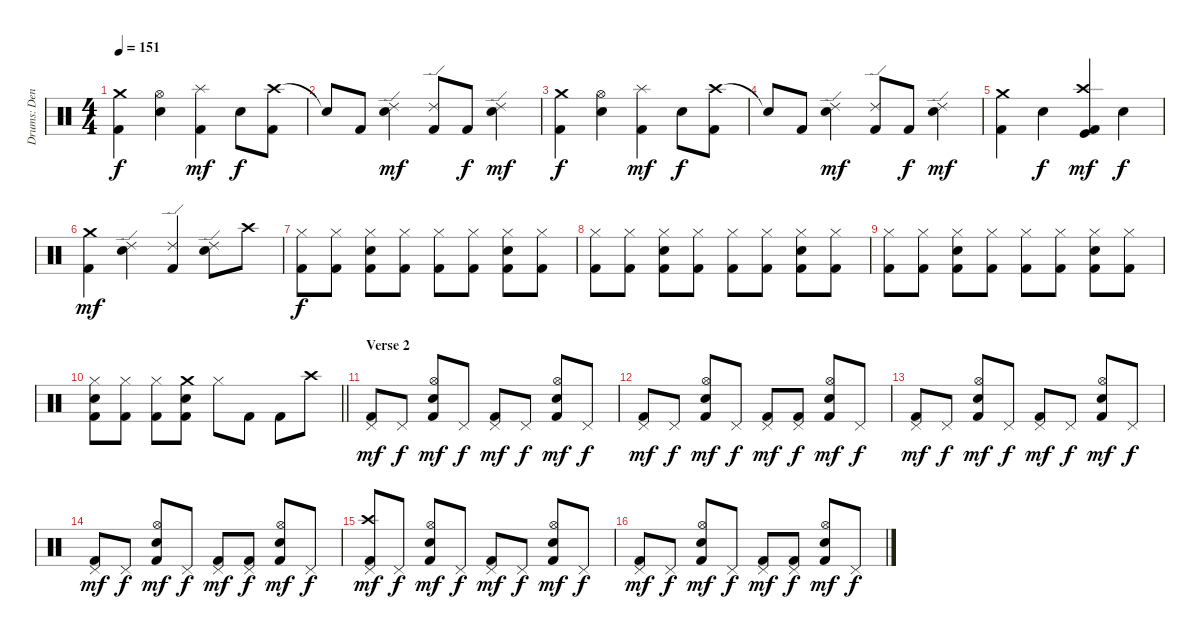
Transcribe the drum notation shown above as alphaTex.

\track ("Drums: Denny Carmassi" "Drums: Den") {instrument percussion}
\staff {score}
\articulation defaults
\ts (4 4)
\tempo 151
\clef neutral
\ks c
("Crash medium (hit)" "Kick (hit) 2").4{dy f} ("Hi-Hat (open)" "Snare (hit) 2").4 ("Splash (hit)" "Kick (hit) 2").4{dy mf} "Snare (hit) 2".8{dy f} ("Crash high (hit)" "Kick (hit) 2").8 |
"Snare (hit)"{t}.8 "Kick (hit) 2".8 ("Ride (edge) 2" "Snare (hit) 2").4{dy mf} ("Ride (edge) 2" "Kick (hit) 2").8 "Kick (hit) 2".8{dy f} ("Ride (edge) 2" "Snare (hit) 2").4{dy mf} |
("Crash medium (hit)" "Kick (hit) 2").4{dy f} ("Hi-Hat (open)" "Snare (hit) 2").4 ("Splash (hit)" "Kick (hit) 2").4{dy mf} "Snare (hit) 2".8{dy f} ("Crash high (hit)" "Kick (hit) 2").8 |
"Snare (hit)"{t}.8 "Kick (hit) 2".8 ("Ride (edge) 2" "Snare (hit) 2").4{dy mf} ("Ride (edge) 2" "Kick (hit) 2").8 "Kick (hit) 2".8{dy f} ("Ride (edge) 2" "Snare (hit) 2").4{dy mf} |
("Crash medium (hit)" "Kick (hit) 2").4 "Snare (hit) 2".4{dy f} ("Crash high (hit)" "Kick (hit)" "Kick (hit) 2").4{dy mf} "Snare (hit) 2".4{dy f} |
("Crash medium (hit)" "Kick (hit) 2").4{dy mf} ("Ride (edge) 2" "Snare (hit) 2").4 ("Ride (edge) 2" "Kick (hit) 2").4 ("Ride (edge) 2" "Snare (hit) 2").8 "Crash high (hit)".8 |
("Hi-Hat (closed)" "Kick (hit) 2").8{dy f} ("Hi-Hat (closed)" "Kick (hit) 2").8 ("Hi-Hat (closed)" "Snare (hit) 2" "Kick (hit) 2").8 ("Hi-Hat (closed)" "Kick (hit) 2").8 ("Hi-Hat (closed)" "Kick (hit) 2").8 ("Hi-Hat (closed)" "Kick (hit) 2").8 ("Hi-Hat (closed)" "Snare (hit) 2" "Kick (hit) 2").8 ("Hi-Hat (closed)" "Kick (hit) 2").8 |
("Hi-Hat (closed)" "Kick (hit) 2").8 ("Hi-Hat (closed)" "Kick (hit) 2").8 ("Hi-Hat (closed)" "Snare (hit) 2" "Kick (hit) 2").8 ("Hi-Hat (closed)" "Kick (hit) 2").8 ("Hi-Hat (closed)" "Kick (hit) 2").8 ("Hi-Hat (closed)" "Kick (hit) 2").8 ("Hi-Hat (closed)" "Snare (hit) 2" "Kick (hit) 2").8 ("Hi-Hat (closed)" "Kick (hit) 2").8 |
("Hi-Hat (closed)" "Kick (hit) 2").8 ("Hi-Hat (closed)" "Kick (hit) 2").8 ("Hi-Hat (closed)" "Snare (hit) 2" "Kick (hit) 2").8 ("Hi-Hat (closed)" "Kick (hit) 2").8 ("Hi-Hat (closed)" "Kick (hit) 2").8 ("Hi-Hat (closed)" "Kick (hit) 2").8 ("Hi-Hat (closed)" "Snare (hit) 2" "Kick (hit) 2").8 ("Hi-Hat (closed)" "Kick (hit) 2").8 |
\barLineRight lightlight
("Hi-Hat (closed)" "Snare (hit) 2" "Kick (hit) 2").8 ("Hi-Hat (closed)" "Kick (hit) 2").8 ("Hi-Hat (closed)" "Kick (hit) 2").8 ("Crash medium (hit)" "Snare (hit) 2" "Kick (hit) 2").8 "Hi-Hat (closed)".8 "Kick (hit) 2".8 "Kick (hit) 2".8 "Crash high (hit)".8 |
\section ("" "Verse 2")
("Pedal Hi-Hat (hit)" "Kick (hit) 2").8{dy mf} "Pedal Hi-Hat (hit)".8{dy f} ("Hi-Hat (open)" "Snare (hit) 2" "Kick (hit) 2").8{dy mf} "Pedal Hi-Hat (hit)".8{dy f} ("Pedal Hi-Hat (hit)" "Kick (hit) 2").8{dy mf} "Pedal Hi-Hat (hit)".8{dy f} ("Hi-Hat (open)" "Snare (hit) 2" "Kick (hit) 2").8{dy mf} "Pedal Hi-Hat (hit)".8{dy f} |
("Pedal Hi-Hat (hit)" "Kick (hit) 2").8{dy mf} "Pedal Hi-Hat (hit)".8{dy f} ("Hi-Hat (open)" "Snare (hit) 2" "Kick (hit) 2").8{dy mf} "Pedal Hi-Hat (hit)".8{dy f} ("Pedal Hi-Hat (hit)" "Kick (hit) 2").8{dy mf} ("Pedal Hi-Hat (hit)" "Kick (hit) 2").8{dy f} ("Hi-Hat (open)" "Snare (hit) 2" "Kick (hit) 2").8{dy mf} "Pedal Hi-Hat (hit)".8{dy f} |
("Pedal Hi-Hat (hit)" "Kick (hit) 2").8{dy mf} "Pedal Hi-Hat (hit)".8{dy f} ("Hi-Hat (open)" "Snare (hit) 2" "Kick (hit) 2").8{dy mf} "Pedal Hi-Hat (hit)".8{dy f} ("Pedal Hi-Hat (hit)" "Kick (hit) 2").8{dy mf} "Pedal Hi-Hat (hit)".8{dy f} ("Hi-Hat (open)" "Snare (hit) 2" "Kick (hit) 2").8{dy mf} "Pedal Hi-Hat (hit)".8{dy f} |
("Pedal Hi-Hat (hit)" "Kick (hit) 2").8{dy mf} "Pedal Hi-Hat (hit)".8{dy f} ("Hi-Hat (open)" "Snare (hit) 2" "Kick (hit) 2").8{dy mf} "Pedal Hi-Hat (hit)".8{dy f} ("Pedal Hi-Hat (hit)" "Kick (hit) 2").8{dy mf} ("Pedal Hi-Hat (hit)" "Kick (hit) 2").8{dy f} ("Hi-Hat (open)" "Snare (hit) 2" "Kick (hit) 2").8{dy mf} "Pedal Hi-Hat (hit)".8{dy f} |
("Crash high (hit)" "Pedal Hi-Hat (hit)" "Kick (hit) 2").8{dy mf} "Pedal Hi-Hat (hit)".8{dy f} ("Hi-Hat (open)" "Snare (hit) 2" "Kick (hit) 2").8{dy mf} "Pedal Hi-Hat (hit)".8{dy f} ("Pedal Hi-Hat (hit)" "Kick (hit) 2").8{dy mf} "Pedal Hi-Hat (hit)".8{dy f} ("Hi-Hat (open)" "Snare (hit) 2" "Kick (hit) 2").8{dy mf} "Pedal Hi-Hat (hit)".8{dy f} |
("Pedal Hi-Hat (hit)" "Kick (hit) 2").8{dy mf} "Pedal Hi-Hat (hit)".8{dy f} ("Hi-Hat (open)" "Snare (hit) 2" "Kick (hit) 2").8{dy mf} "Pedal Hi-Hat (hit)".8{dy f} ("Pedal Hi-Hat (hit)" "Kick (hit) 2").8{dy mf} ("Pedal Hi-Hat (hit)" "Kick (hit) 2").8{dy f} ("Hi-Hat (open)" "Snare (hit) 2" "Kick (hit) 2").8{dy mf} "Pedal Hi-Hat (hit)".8{dy f}
